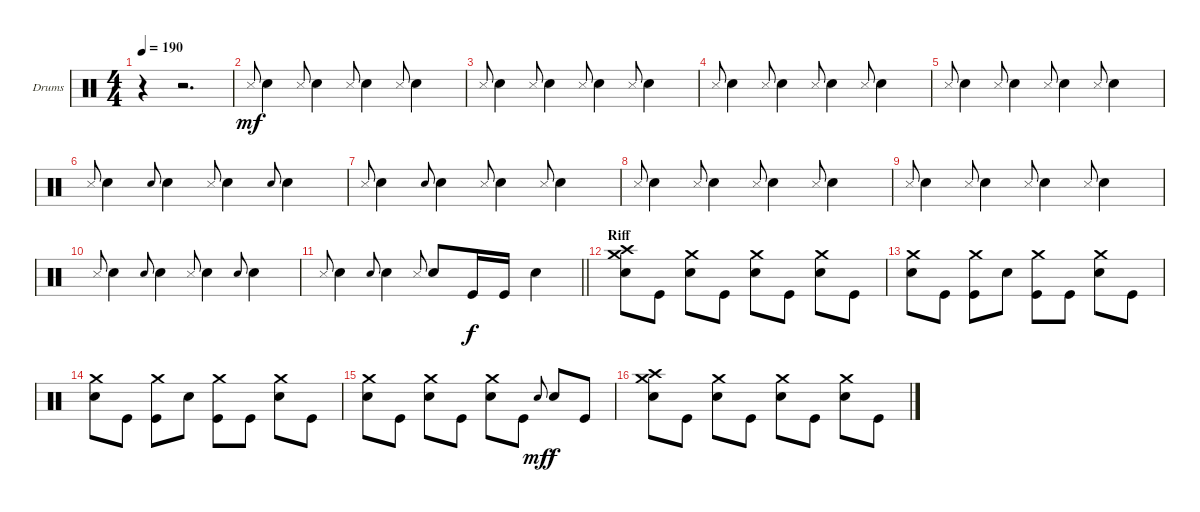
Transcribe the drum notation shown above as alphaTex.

\bracketExtendMode groupsimilarinstruments
\firstSystemTrackNameOrientation horizontal
\otherSystemsTrackNameOrientation horizontal
\track ("Drumkit" "Drums") {instrument percussion}
\staff {score}
\articulation defaults
\ts (4 4)
\tempo 190
\clef neutral
\ks c
r.4{dy mf} r.2{d} |
"Snare (side stick) 3".8{gr onbeat} "Snare (hit) 2".4 "Snare (side stick) 3".8{gr onbeat} "Snare (hit) 2".4 "Snare (side stick) 3".8{gr onbeat} "Snare (hit) 2".4 "Snare (side stick) 3".8{gr onbeat} "Snare (hit) 2".4 |
"Snare (side stick) 3".8{gr onbeat} "Snare (hit) 2".4 "Snare (side stick) 3".8{gr onbeat} "Snare (hit) 2".4 "Snare (side stick) 3".8{gr onbeat} "Snare (hit) 2".4 "Snare (side stick) 3".8{gr onbeat} "Snare (hit) 2".4 |
"Snare (side stick) 3".8{gr onbeat} "Snare (hit) 2".4 "Snare (side stick) 3".8{gr onbeat} "Snare (hit) 2".4 "Snare (side stick) 3".8{gr onbeat} "Snare (hit) 2".4 "Snare (side stick) 3".8{gr onbeat} "Snare (hit) 2".4 |
"Snare (side stick) 3".8{gr onbeat} "Snare (hit) 2".4 "Snare (side stick) 3".8{gr onbeat} "Snare (hit) 2".4 "Snare (side stick) 3".8{gr onbeat} "Snare (hit) 2".4 "Snare (side stick) 3".8{gr onbeat} "Snare (hit) 2".4 |
"Snare (side stick) 3".8{gr onbeat} "Snare (hit) 2".4 "Snare (hit) 2".8{gr onbeat} "Snare (hit) 2".4 "Snare (side stick) 3".8{gr onbeat} "Snare (hit) 2".4 "Snare (hit) 2".8{gr onbeat} "Snare (hit) 2".4 |
"Snare (side stick) 3".8{gr onbeat} "Snare (hit) 2".4 "Snare (hit) 2".8{gr onbeat} "Snare (hit) 2".4 "Snare (side stick) 3".8{gr onbeat} "Snare (hit) 2".4 "Snare (side stick) 3".8{gr onbeat} "Snare (hit) 2".4 |
"Snare (side stick) 3".8{gr onbeat} "Snare (hit) 2".4 "Snare (side stick) 3".8{gr onbeat} "Snare (hit) 2".4 "Snare (side stick) 3".8{gr onbeat} "Snare (hit) 2".4 "Snare (side stick) 3".8{gr onbeat} "Snare (hit) 2".4 |
"Snare (side stick) 3".8{gr onbeat} "Snare (hit) 2".4 "Snare (side stick) 3".8{gr onbeat} "Snare (hit) 2".4 "Snare (side stick) 3".8{gr onbeat} "Snare (hit) 2".4 "Snare (side stick) 3".8{gr onbeat} "Snare (hit) 2".4 |
"Snare (side stick) 3".8{gr onbeat} "Snare (hit) 2".4 "Snare (hit) 2".8{gr onbeat} "Snare (hit) 2".4 "Snare (side stick) 3".8{gr onbeat} "Snare (hit) 2".4 "Snare (hit) 2".8{gr onbeat} "Snare (hit) 2".4 |
\barLineRight lightlight "Snare (side stick) 3".8{gr onbeat} "Snare (hit) 2".4 "Snare (hit) 2".8{gr onbeat} "Snare (hit) 2".4 "Snare (side stick) 3".8{gr onbeat} "Snare (hit) 2".8 "Kick (hit)".16{dy f} "Kick (hit)".16 "Snare (hit) 2".4
|
\section ("" "Riff")
("Crash high (hit)" "Crash medium (hit)" "Snare (hit) 2").8 "Kick (hit)".8 ("Crash medium (hit)" "Snare (hit) 2").8 "Kick (hit)".8 ("Crash medium (hit)" "Snare (hit) 2").8 "Kick (hit)".8 ("Crash medium (hit)" "Snare (hit) 2").8 "Kick (hit)".8 |
("Crash medium (hit)" "Snare (hit) 2").8 "Kick (hit)".8 ("Crash medium (hit)" "Kick (hit)").8 "Snare (hit) 2".8 ("Crash medium (hit)" "Kick (hit)").8 "Kick (hit)".8 ("Crash medium (hit)" "Snare (hit) 2").8 "Kick (hit)".8 |
("Crash medium (hit)" "Snare (hit) 2").8 "Kick (hit)".8 ("Crash medium (hit)" "Kick (hit)").8 "Snare (hit) 2".8 ("Crash medium (hit)" "Kick (hit)").8 "Kick (hit)".8 ("Crash medium (hit)" "Snare (hit) 2").8 "Kick (hit)".8 |
("Crash medium (hit)" "Snare (hit) 2").8 "Kick (hit)".8 ("Crash medium (hit)" "Snare (hit) 2").8 "Kick (hit)".8 ("Crash medium (hit)" "Snare (hit) 2").8 "Kick (hit)".8 "Snare (hit) 2".8{gr onbeat dy mf} "Snare (hit) 2".8{dy f} "Kick (hit)".8 |
("Crash high (hit)" "Crash medium (hit)" "Snare (hit) 2").8 "Kick (hit)".8 ("Crash medium (hit)" "Snare (hit) 2").8 "Kick (hit)".8 ("Crash medium (hit)" "Snare (hit) 2").8 "Kick (hit)".8 ("Crash medium (hit)" "Snare (hit) 2").8 "Kick (hit)".8
